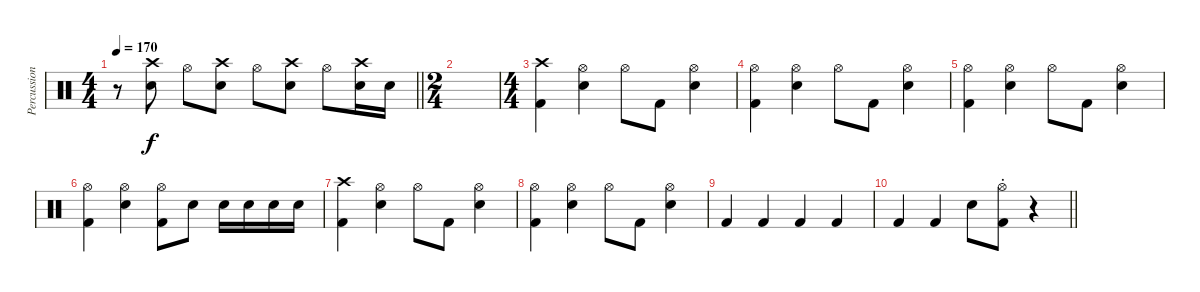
\track ("Percussion" "Percussion") {instrument percussion}
\staff {score}
\articulation defaults
\ts (4 4)
\tempo 170
\clef neutral
\barLineRight lightlight
\ks c
r.8{dy f} ("Crash high (hit)" "Snare (hit) 2").8 "Hi-Hat (open)".8 ("Crash high (hit)" "Snare (hit) 2").8 "Hi-Hat (open)".8 ("Crash high (hit)" "Snare (hit) 2").8 "Hi-Hat (open)".8 ("Crash high (hit)" "Snare (hit) 2").16 "Snare (hit) 2".16 |
\ts (2 4)
|
\ts (4 4)
("Crash high (hit)" "Kick (hit) 2").4 ("Hi-Hat (open)" "Snare (hit) 2").4 "Hi-Hat (open)".8 "Kick (hit) 2".8 ("Hi-Hat (open)" "Snare (hit) 2").4 |
("Hi-Hat (open)" "Kick (hit) 2").4 ("Hi-Hat (open)" "Snare (hit) 2").4 "Hi-Hat (open)".8 "Kick (hit) 2".8 ("Hi-Hat (open)" "Snare (hit) 2").4 |
("Hi-Hat (open)" "Kick (hit) 2").4 ("Hi-Hat (open)" "Snare (hit) 2").4 "Hi-Hat (open)".8 "Kick (hit) 2".8 ("Hi-Hat (open)" "Snare (hit) 2").4 |
("Hi-Hat (open)" "Kick (hit) 2").4 ("Hi-Hat (open)" "Snare (hit) 2").4 ("Hi-Hat (open)" "Kick (hit) 2").8 "Snare (hit) 2".8 "Snare (hit) 2".16 "Snare (hit) 2".16 "Snare (hit) 2".16 "Snare (hit) 2".16 |
("Crash high (hit)" "Kick (hit) 2").4 ("Hi-Hat (open)" "Snare (hit) 2").4 "Hi-Hat (open)".8 "Kick (hit) 2".8 ("Hi-Hat (open)" "Snare (hit) 2").4 |
("Hi-Hat (open)" "Kick (hit) 2").4 ("Hi-Hat (open)" "Snare (hit) 2").4 "Hi-Hat (open)".8 "Kick (hit) 2".8 ("Hi-Hat (open)" "Snare (hit) 2").4 |
"Kick (hit) 2".4 "Kick (hit) 2".4 "Kick (hit) 2".4 "Kick (hit) 2".4 |
\barLineRight lightlight "Kick (hit) 2".4 "Kick (hit) 2".4 "Snare (hit) 2".8
("Hi-Hat (open)"{st} "Kick (hit) 2").8 r.4
